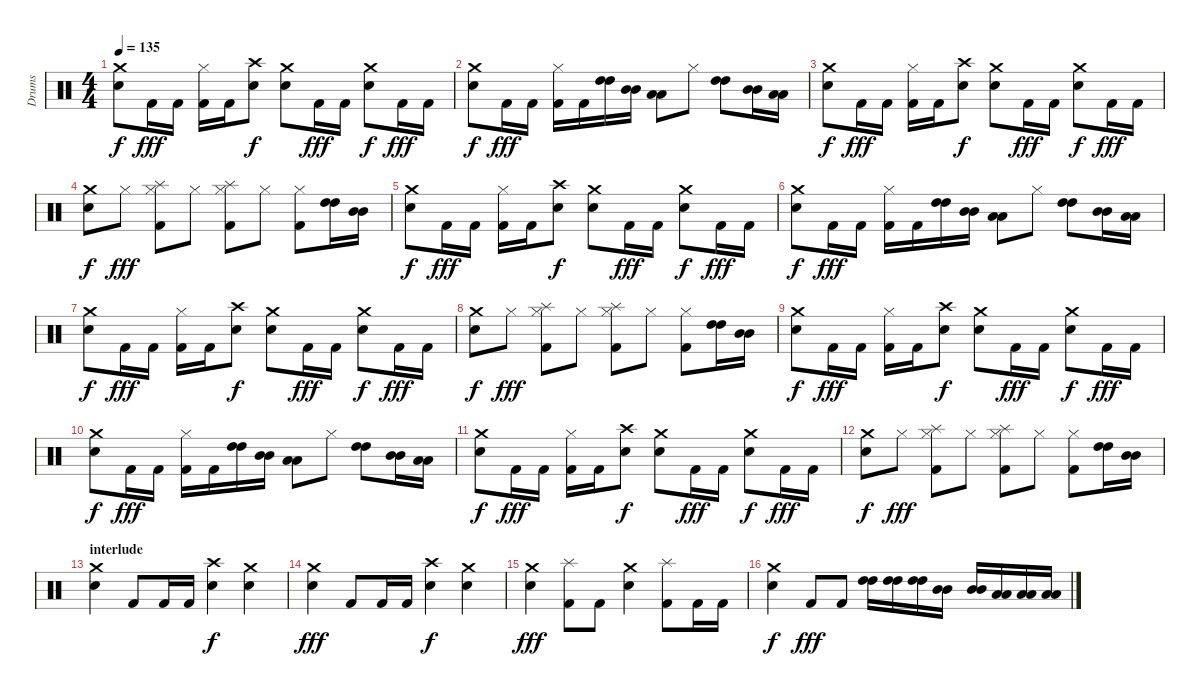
\track ("Drums" "Drums") {instrument percussion}
\staff {score}
\articulation defaults
\ts (4 4)
\tempo 135
\clef neutral
\ks c
("Crash medium (hit)" "Electric Snare (hit)").8{dy f} "Kick (hit) 2".16{dy fff} "Kick (hit) 2".16 ("Hi-Hat (closed)" "Kick (hit) 2").16 "Kick (hit) 2".16 ("Crash high (hit)" "Electric Snare (hit)").8{dy f} ("Crash medium (hit)" "Electric Snare (hit)").8 "Kick (hit) 2".16{dy fff} "Kick (hit) 2".16 ("Crash medium (hit)" "Electric Snare (hit)").8{dy f} "Kick (hit) 2".16{dy fff} "Kick (hit) 2".16 |
("Crash medium (hit)" "Electric Snare (hit)").8{dy f} "Kick (hit) 2".16{dy fff} "Kick (hit) 2".16 ("Hi-Hat (closed)" "Kick (hit) 2").16 "Kick (hit) 2".16 ("High Tom (hit)" "High Tom (hit)").16 ("Mid Tom (hit)" "Mid Tom (hit)").16 ("Low Tom (hit)" "Low Tom (hit)").8 "Hi-Hat (closed)".8 ("High Tom (hit)" "High Tom (hit)").8 ("Mid Tom (hit)" "Mid Tom (hit)").16 ("Low Tom (hit)" "Low Tom (hit)").16 |
("Crash medium (hit)" "Electric Snare (hit)").8{dy f} "Kick (hit) 2".16{dy fff} "Kick (hit) 2".16 ("Hi-Hat (closed)" "Kick (hit) 2").16 "Kick (hit) 2".16 ("Crash high (hit)" "Electric Snare (hit)").8{dy f} ("Crash medium (hit)" "Electric Snare (hit)").8 "Kick (hit) 2".16{dy fff} "Kick (hit) 2".16 ("Crash medium (hit)" "Electric Snare (hit)").8{dy f} "Kick (hit) 2".16{dy fff} "Kick (hit) 2".16 |
("Crash medium (hit)" "Electric Snare (hit)").8{dy f} "Hi-Hat (closed)".8{dy fff} ("Splash (hit)" "Kick (hit) 2" "Hi-Hat (closed)").8 "Hi-Hat (closed)".8 ("Splash (hit)" "Kick (hit) 2" "Hi-Hat (closed)").8 "Hi-Hat (closed)".8 ("Kick (hit) 2" "Hi-Hat (closed)").8 ("High Tom (hit)" "High Tom (hit)").16 ("Mid Tom (hit)" "Mid Tom (hit)").16 |
("Crash medium (hit)" "Electric Snare (hit)").8{dy f} "Kick (hit) 2".16{dy fff} "Kick (hit) 2".16 ("Hi-Hat (closed)" "Kick (hit) 2").16 "Kick (hit) 2".16 ("Crash high (hit)" "Electric Snare (hit)").8{dy f} ("Crash medium (hit)" "Electric Snare (hit)").8 "Kick (hit) 2".16{dy fff} "Kick (hit) 2".16 ("Crash medium (hit)" "Electric Snare (hit)").8{dy f} "Kick (hit) 2".16{dy fff} "Kick (hit) 2".16 |
("Crash medium (hit)" "Electric Snare (hit)").8{dy f} "Kick (hit) 2".16{dy fff} "Kick (hit) 2".16 ("Hi-Hat (closed)" "Kick (hit) 2").16 "Kick (hit) 2".16 ("High Tom (hit)" "High Tom (hit)").16 ("Mid Tom (hit)" "Mid Tom (hit)").16 ("Low Tom (hit)" "Low Tom (hit)").8 "Hi-Hat (closed)".8 ("High Tom (hit)" "High Tom (hit)").8 ("Mid Tom (hit)" "Mid Tom (hit)").16 ("Low Tom (hit)" "Low Tom (hit)").16 |
("Crash medium (hit)" "Electric Snare (hit)").8{dy f} "Kick (hit) 2".16{dy fff} "Kick (hit) 2".16 ("Hi-Hat (closed)" "Kick (hit) 2").16 "Kick (hit) 2".16 ("Crash high (hit)" "Electric Snare (hit)").8{dy f} ("Crash medium (hit)" "Electric Snare (hit)").8 "Kick (hit) 2".16{dy fff} "Kick (hit) 2".16 ("Crash medium (hit)" "Electric Snare (hit)").8{dy f} "Kick (hit) 2".16{dy fff} "Kick (hit) 2".16 |
("Crash medium (hit)" "Electric Snare (hit)").8{dy f} "Hi-Hat (closed)".8{dy fff} ("Splash (hit)" "Kick (hit) 2" "Hi-Hat (closed)").8 "Hi-Hat (closed)".8 ("Splash (hit)" "Kick (hit) 2" "Hi-Hat (closed)").8 "Hi-Hat (closed)".8 ("Kick (hit) 2" "Hi-Hat (closed)").8 ("High Tom (hit)" "High Tom (hit)").16 ("Mid Tom (hit)" "Mid Tom (hit)").16 |
("Crash medium (hit)" "Electric Snare (hit)").8{dy f} "Kick (hit) 2".16{dy fff} "Kick (hit) 2".16 ("Hi-Hat (closed)" "Kick (hit) 2").16 "Kick (hit) 2".16 ("Crash high (hit)" "Electric Snare (hit)").8{dy f} ("Crash medium (hit)" "Electric Snare (hit)").8 "Kick (hit) 2".16{dy fff} "Kick (hit) 2".16 ("Crash medium (hit)" "Electric Snare (hit)").8{dy f} "Kick (hit) 2".16{dy fff} "Kick (hit) 2".16 |
("Crash medium (hit)" "Electric Snare (hit)").8{dy f} "Kick (hit) 2".16{dy fff} "Kick (hit) 2".16 ("Hi-Hat (closed)" "Kick (hit) 2").16 "Kick (hit) 2".16 ("High Tom (hit)" "High Tom (hit)").16 ("Mid Tom (hit)" "Mid Tom (hit)").16 ("Low Tom (hit)" "Low Tom (hit)").8 "Hi-Hat (closed)".8 ("High Tom (hit)" "High Tom (hit)").8 ("Mid Tom (hit)" "Mid Tom (hit)").16 ("Low Tom (hit)" "Low Tom (hit)").16 |
("Crash medium (hit)" "Electric Snare (hit)").8{dy f} "Kick (hit) 2".16{dy fff} "Kick (hit) 2".16 ("Hi-Hat (closed)" "Kick (hit) 2").16 "Kick (hit) 2".16 ("Crash high (hit)" "Electric Snare (hit)").8{dy f} ("Crash medium (hit)" "Electric Snare (hit)").8 "Kick (hit) 2".16{dy fff} "Kick (hit) 2".16 ("Crash medium (hit)" "Electric Snare (hit)").8{dy f} "Kick (hit) 2".16{dy fff} "Kick (hit) 2".16 |
("Crash medium (hit)" "Electric Snare (hit)").8{dy f} "Hi-Hat (closed)".8{dy fff} ("Splash (hit)" "Kick (hit) 2" "Hi-Hat (closed)").8 "Hi-Hat (closed)".8 ("Splash (hit)" "Kick (hit) 2" "Hi-Hat (closed)").8 "Hi-Hat (closed)".8 ("Kick (hit) 2" "Hi-Hat (closed)").8 ("High Tom (hit)" "High Tom (hit)").16 ("Mid Tom (hit)" "Mid Tom (hit)").16 |
\section ("" "interlude")
("Crash medium (hit)" "Electric Snare (hit)").4 "Kick (hit) 2".8 "Kick (hit) 2".16 "Kick (hit) 2".16 ("Crash high (hit)" "Electric Snare (hit)").4{dy f} ("Crash medium (hit)" "Electric Snare (hit)").4 |
("Crash medium (hit)" "Electric Snare (hit)").4{dy fff} "Kick (hit) 2".8 "Kick (hit) 2".16 "Kick (hit) 2".16 ("Crash high (hit)" "Electric Snare (hit)").4{dy f} ("Crash medium (hit)" "Electric Snare (hit)").4 |
("Crash medium (hit)" "Electric Snare (hit)").4{dy fff} ("Splash (hit)" "Kick (hit) 2").8 "Kick (hit) 2".8 ("Crash medium (hit)" "Electric Snare (hit)").4 ("Splash (hit)" "Kick (hit) 2").8 "Kick (hit) 2".16 "Kick (hit) 2".16 |
("Electric Snare (hit)" "Crash medium (hit)").4{dy f} "Kick (hit) 2".8{dy fff} "Kick (hit) 2".8 ("High Tom (hit)" "High Tom (hit)").16 ("High Tom (hit)" "High Tom (hit)").16 ("High Tom (hit)" "High Tom (hit)").16 ("Mid Tom (hit)" "Mid Tom (hit)").16 ("Mid Tom (hit)" "Mid Tom (hit)").16 ("Low Tom (hit)" "Low Tom (hit)").16 ("Low Tom (hit)" "Low Tom (hit)").16 ("Low Tom (hit)" "Low Tom (hit)").16
